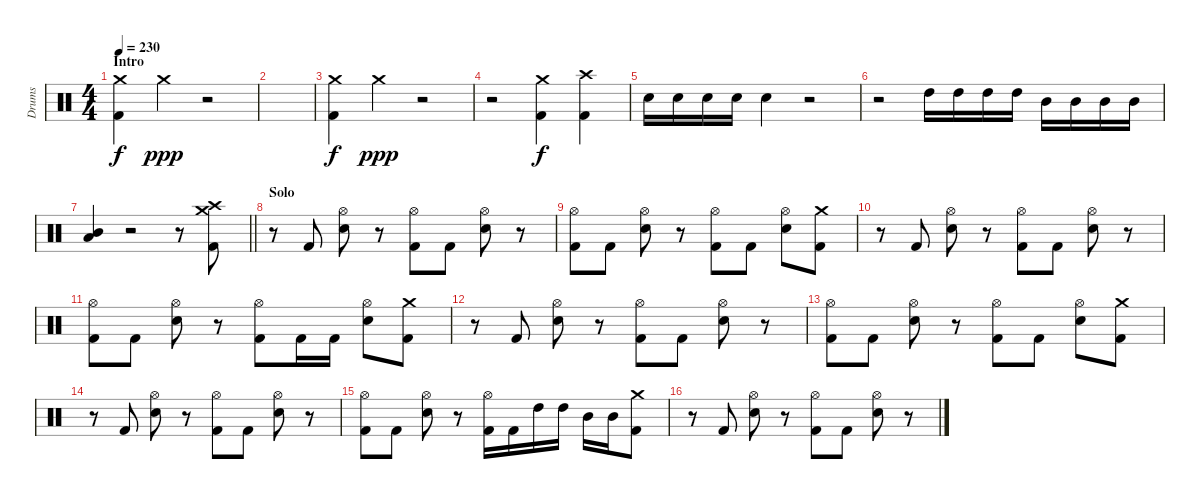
\track ("Drums" "Drums") {instrument percussion}
\staff {score}
\articulation defaults
\ts (4 4)
\section ("" "Intro")
\tempo 230
\clef neutral
\ks c
("Crash medium (hit)" "Kick (hit) 2").4{dy f} "Crash medium (hit)".4{dy ppp} r.2 |
|
("Crash medium (hit)" "Kick (hit) 2").4{dy f} "Crash medium (hit)".4{dy ppp} r.2 |
r.2 ("Crash medium (hit)" "Kick (hit) 2").4{dy f} ("Crash high (hit)" "Kick (hit) 2").4 |
"Electric Snare (hit)".16 "Electric Snare (hit)".16 "Electric Snare (hit)".16 "Electric Snare (hit)".16 "Electric Snare (hit)".4 r.2 |
r.2 "High Tom (hit)".16 "High Tom (hit)".16 "High Tom (hit)".16 "High Tom (hit)".16 "Mid Tom (hit)".16 "Mid Tom (hit)".16 "Mid Tom (hit)".16 "Mid Tom (hit)".16 |
\barLineRight lightlight
("Mid Tom (hit)" "Low Tom (hit)").4 r.2 r.8 ("Crash high (hit)" "Crash medium (hit)" "Kick (hit) 2").8 |
\section ("" "Solo")
r.8 "Kick (hit) 2".8 ("Hi-Hat (open)" "Electric Snare (hit)").8 r.8 ("Hi-Hat (open)" "Kick (hit) 2").8 "Kick (hit) 2".8 ("Hi-Hat (open)" "Electric Snare (hit)").8 r.8 |
("Hi-Hat (open)" "Kick (hit) 2").8 "Kick (hit) 2".8 ("Hi-Hat (open)" "Electric Snare (hit)").8 r.8 ("Hi-Hat (open)" "Kick (hit) 2").8 "Kick (hit) 2".8 ("Hi-Hat (open)" "Electric Snare (hit)").8 ("Crash medium (hit)" "Kick (hit) 2").8 |
r.8 "Kick (hit) 2".8 ("Hi-Hat (open)" "Electric Snare (hit)").8 r.8 ("Hi-Hat (open)" "Kick (hit) 2").8 "Kick (hit) 2".8 ("Hi-Hat (open)" "Electric Snare (hit)").8 r.8 |
("Hi-Hat (open)" "Kick (hit) 2").8 "Kick (hit) 2".8 ("Hi-Hat (open)" "Electric Snare (hit)").8 r.8 ("Hi-Hat (open)" "Kick (hit) 2").8 "Kick (hit) 2".16 "Kick (hit) 2".16 ("Hi-Hat (open)" "Electric Snare (hit)").8 ("Crash medium (hit)" "Kick (hit) 2").8 |
r.8 "Kick (hit) 2".8 ("Hi-Hat (open)" "Electric Snare (hit)").8 r.8 ("Hi-Hat (open)" "Kick (hit) 2").8 "Kick (hit) 2".8 ("Hi-Hat (open)" "Electric Snare (hit)").8 r.8 |
("Hi-Hat (open)" "Kick (hit) 2").8 "Kick (hit) 2".8 ("Hi-Hat (open)" "Electric Snare (hit)").8 r.8 ("Hi-Hat (open)" "Kick (hit) 2").8 "Kick (hit) 2".8 ("Hi-Hat (open)" "Electric Snare (hit)").8 ("Crash medium (hit)" "Kick (hit) 2").8 |
r.8 "Kick (hit) 2".8 ("Hi-Hat (open)" "Electric Snare (hit)").8 r.8 ("Hi-Hat (open)" "Kick (hit) 2").8 "Kick (hit) 2".8 ("Hi-Hat (open)" "Electric Snare (hit)").8 r.8 |
("Hi-Hat (open)" "Kick (hit) 2").8 "Kick (hit) 2".8 ("Hi-Hat (open)" "Electric Snare (hit)").8 r.8 ("Hi-Hat (open)" "Kick (hit) 2").16 "Kick (hit) 2".16 "High Tom (hit)".16 "High Tom (hit)".16 "Mid Tom (hit)".16 "Mid Tom (hit)".16 ("Crash medium (hit)" "Kick (hit) 2").8 |
r.8 "Kick (hit) 2".8 ("Hi-Hat (open)" "Electric Snare (hit)").8 r.8 ("Hi-Hat (open)" "Kick (hit) 2").8 "Kick (hit) 2".8 ("Hi-Hat (open)" "Electric Snare (hit)").8 r.8
